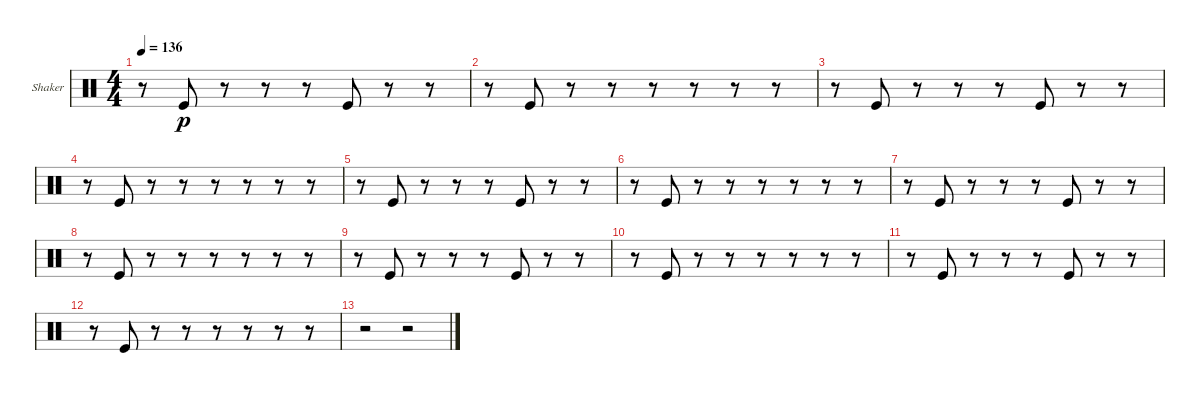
\bracketExtendMode groupsimilarinstruments
\firstSystemTrackNameOrientation horizontal
\otherSystemsTrackNameOrientation horizontal
\track ("Shaker" "Shaker") {instrument percussion}
\staff {score}
\articulation defaults
\ts (4 4)
\tempo 136
\clef neutral
\ks c
r.8{dy p} "Kick (hit)".8 r.8 r.8 r.8 "Kick (hit)".8 r.8 r.8 |
r.8 "Kick (hit)".8 r.8 r.8 r.8 r.8 r.8 r.8 |
r.8 "Kick (hit)".8 r.8 r.8 r.8 "Kick (hit)".8 r.8 r.8 |
r.8 "Kick (hit)".8 r.8 r.8 r.8 r.8 r.8 r.8 |
r.8 "Kick (hit)".8 r.8 r.8 r.8 "Kick (hit)".8 r.8 r.8 |
r.8 "Kick (hit)".8 r.8 r.8 r.8 r.8 r.8 r.8 |
r.8 "Kick (hit)".8 r.8 r.8 r.8 "Kick (hit)".8 r.8 r.8 |
r.8 "Kick (hit)".8 r.8 r.8 r.8 r.8 r.8 r.8 |
r.8 "Kick (hit)".8 r.8 r.8 r.8 "Kick (hit)".8 r.8 r.8 |
r.8 "Kick (hit)".8 r.8 r.8 r.8 r.8 r.8 r.8 |
r.8 "Kick (hit)".8 r.8 r.8 r.8 "Kick (hit)".8 r.8 r.8 |
r.8 "Kick (hit)".8 r.8 r.8 r.8 r.8 r.8 r.8 |
r.2 r.2
